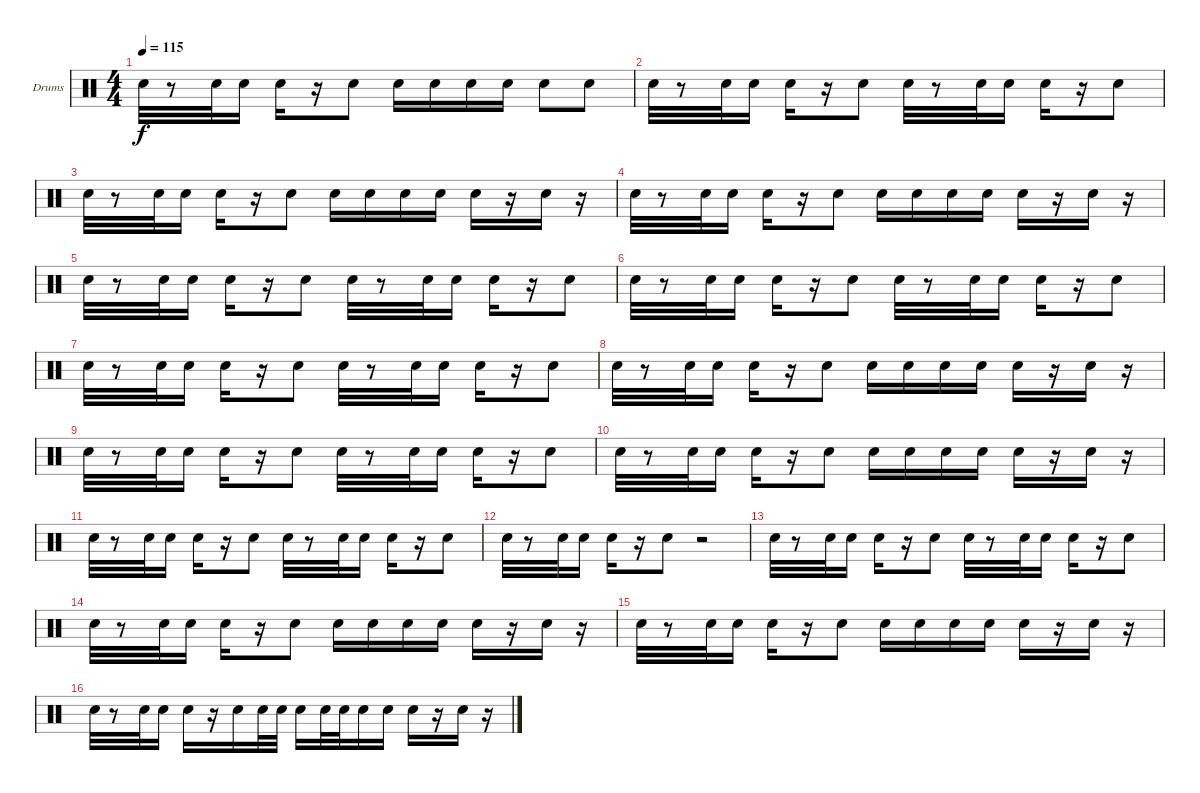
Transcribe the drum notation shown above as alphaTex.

\bracketExtendMode groupsimilarinstruments
\firstSystemTrackNameOrientation horizontal
\otherSystemsTrackNameOrientation horizontal
\track ("Drumkit" "Drums") {instrument percussion}
\staff {score}
\articulation defaults
\ts (4 4)
\tempo 115
\clef neutral
\ks c "Snare (hit) 2".32{dy f}
r.8 "Snare (hit) 2".32 "Snare (hit) 2".16 "Snare (hit) 2".16 r.16 "Snare (hit) 2".8 "Snare (hit) 2".16 "Snare (hit) 2".16 "Snare (hit) 2".16 "Snare (hit) 2".16 "Snare (hit) 2".8 "Snare (hit) 2".8 |
"Snare (hit) 2".32 r.8 "Snare (hit) 2".32 "Snare (hit) 2".16 "Snare (hit) 2".16 r.16 "Snare (hit) 2".8 "Snare (hit) 2".32 r.8 "Snare (hit) 2".32 "Snare (hit) 2".16 "Snare (hit) 2".16 r.16 "Snare (hit) 2".8 |
"Snare (hit) 2".32 r.8 "Snare (hit) 2".32 "Snare (hit) 2".16 "Snare (hit) 2".16 r.16 "Snare (hit) 2".8 "Snare (hit) 2".16 "Snare (hit) 2".16 "Snare (hit) 2".16 "Snare (hit) 2".16 "Snare (hit) 2".16 r.16 "Snare (hit) 2".16 r.16 |
"Snare (hit) 2".32 r.8 "Snare (hit) 2".32 "Snare (hit) 2".16 "Snare (hit) 2".16 r.16 "Snare (hit) 2".8 "Snare (hit) 2".16 "Snare (hit) 2".16 "Snare (hit) 2".16 "Snare (hit) 2".16 "Snare (hit) 2".16 r.16 "Snare (hit) 2".16 r.16 |
"Snare (hit) 2".32 r.8 "Snare (hit) 2".32 "Snare (hit) 2".16 "Snare (hit) 2".16 r.16 "Snare (hit) 2".8 "Snare (hit) 2".32 r.8 "Snare (hit) 2".32 "Snare (hit) 2".16 "Snare (hit) 2".16 r.16 "Snare (hit) 2".8 |
"Snare (hit) 2".32 r.8 "Snare (hit) 2".32 "Snare (hit) 2".16 "Snare (hit) 2".16 r.16 "Snare (hit) 2".8 "Snare (hit) 2".32 r.8 "Snare (hit) 2".32 "Snare (hit) 2".16 "Snare (hit) 2".16 r.16 "Snare (hit) 2".8 |
"Snare (hit) 2".32 r.8 "Snare (hit) 2".32 "Snare (hit) 2".16 "Snare (hit) 2".16 r.16 "Snare (hit) 2".8 "Snare (hit) 2".32 r.8 "Snare (hit) 2".32 "Snare (hit) 2".16 "Snare (hit) 2".16 r.16 "Snare (hit) 2".8 |
"Snare (hit) 2".32 r.8 "Snare (hit) 2".32 "Snare (hit) 2".16 "Snare (hit) 2".16 r.16 "Snare (hit) 2".8 "Snare (hit) 2".16 "Snare (hit) 2".16 "Snare (hit) 2".16 "Snare (hit) 2".16 "Snare (hit) 2".16 r.16 "Snare (hit) 2".16 r.16 |
"Snare (hit) 2".32 r.8 "Snare (hit) 2".32 "Snare (hit) 2".16 "Snare (hit) 2".16 r.16 "Snare (hit) 2".8 "Snare (hit) 2".32 r.8 "Snare (hit) 2".32 "Snare (hit) 2".16 "Snare (hit) 2".16 r.16 "Snare (hit) 2".8 |
"Snare (hit) 2".32 r.8 "Snare (hit) 2".32 "Snare (hit) 2".16 "Snare (hit) 2".16 r.16 "Snare (hit) 2".8 "Snare (hit) 2".16 "Snare (hit) 2".16 "Snare (hit) 2".16 "Snare (hit) 2".16 "Snare (hit) 2".16 r.16 "Snare (hit) 2".16 r.16 |
"Snare (hit) 2".32 r.8 "Snare (hit) 2".32 "Snare (hit) 2".16 "Snare (hit) 2".16 r.16 "Snare (hit) 2".8 "Snare (hit) 2".32 r.8 "Snare (hit) 2".32 "Snare (hit) 2".16 "Snare (hit) 2".16 r.16 "Snare (hit) 2".8 |
"Snare (hit) 2".32 r.8 "Snare (hit) 2".32 "Snare (hit) 2".16 "Snare (hit) 2".16 r.16 "Snare (hit) 2".8 r.2 |
"Snare (hit) 2".32 r.8 "Snare (hit) 2".32 "Snare (hit) 2".16 "Snare (hit) 2".16 r.16 "Snare (hit) 2".8 "Snare (hit) 2".32 r.8 "Snare (hit) 2".32 "Snare (hit) 2".16 "Snare (hit) 2".16 r.16 "Snare (hit) 2".8 |
"Snare (hit) 2".32 r.8 "Snare (hit) 2".32 "Snare (hit) 2".16 "Snare (hit) 2".16 r.16 "Snare (hit) 2".8 "Snare (hit) 2".16 "Snare (hit) 2".16 "Snare (hit) 2".16 "Snare (hit) 2".16 "Snare (hit) 2".16 r.16 "Snare (hit) 2".16 r.16 |
"Snare (hit) 2".32 r.8 "Snare (hit) 2".32 "Snare (hit) 2".16 "Snare (hit) 2".16 r.16 "Snare (hit) 2".8 "Snare (hit) 2".16 "Snare (hit) 2".16 "Snare (hit) 2".16 "Snare (hit) 2".16 "Snare (hit) 2".16 r.16 "Snare (hit) 2".16 r.16 |
"Snare (hit) 2".32 r.8 "Snare (hit) 2".32 "Snare (hit) 2".16 "Snare (hit) 2".16 r.16 "Snare (hit) 2".16 "Snare (hit) 2".32 "Snare (hit) 2".32 "Snare (hit) 2".16 "Snare (hit) 2".32 "Snare (hit) 2".32 "Snare (hit) 2".16 "Snare (hit) 2".16 "Snare (hit) 2".16 r.16 "Snare (hit) 2".16 r.16
